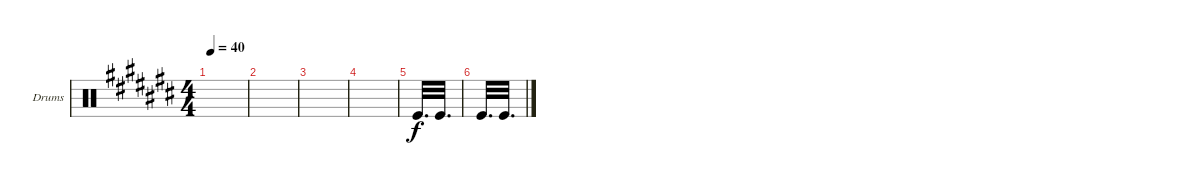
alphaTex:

\defaultSystemsLayout 4
\bracketExtendMode groupsimilarinstruments
\firstSystemTrackNameOrientation horizontal
\otherSystemsTrackNameOrientation horizontal
\track ("[Eli] Drums" "Drums") {instrument percussion}
\staff {score}
\articulation defaults
\ts (4 4)
\tempo 40
\clef neutral
\ks a#minor
|
|
|
|
"Kick (hit)".32{d} "Kick (hit)".32{d} |
"Kick (hit)".32{d} "Kick (hit)".32{d}
